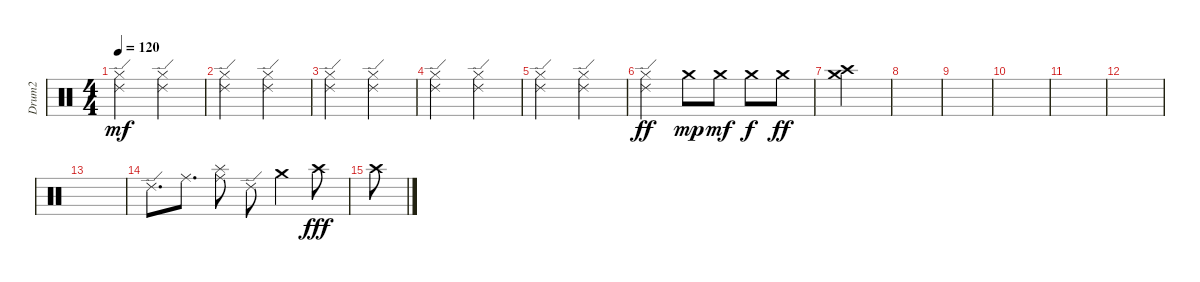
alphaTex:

\track ("Drum2" "Drum2") {instrument percussion}
\staff {score}
\articulation defaults
\ts (4 4)
\tempo 120
\clef neutral
\ks c
("Ride (edge) 2" "Hi-Hat (closed)").2{dy mf} ("Ride (edge) 2" "Hi-Hat (closed)").2 |
("Ride (edge) 2" "Hi-Hat (closed)").2 ("Ride (edge) 2" "Hi-Hat (closed)").2 |
("Ride (edge) 2" "Hi-Hat (closed)").2 ("Ride (edge) 2" "Hi-Hat (closed)").2 |
("Ride (edge) 2" "Hi-Hat (closed)").2 ("Ride (edge) 2" "Hi-Hat (closed)").2 |
("Ride (edge) 2" "Hi-Hat (closed)").2 ("Ride (edge) 2" "Hi-Hat (closed)").2 |
("Ride (edge) 2" "Hi-Hat (closed)").2{dy ff} "Crash medium (hit)".8{dy mp} "Crash medium (hit)".8{dy mf} "Crash medium (hit)".8{dy f} "Crash medium (hit)".8{dy ff} |
("Crash high (hit)" "Crash medium (hit)").2 |
|
|
|
|
|
|
"Ride (edge) 2".8{d} "Ride (middle)".8{d} ("Ride (middle)" "Splash (hit)").8 "Ride (edge) 2".8 "Crash medium (hit)".4 "Crash high (hit)".8{dy fff} |
"Crash high (hit)".8
